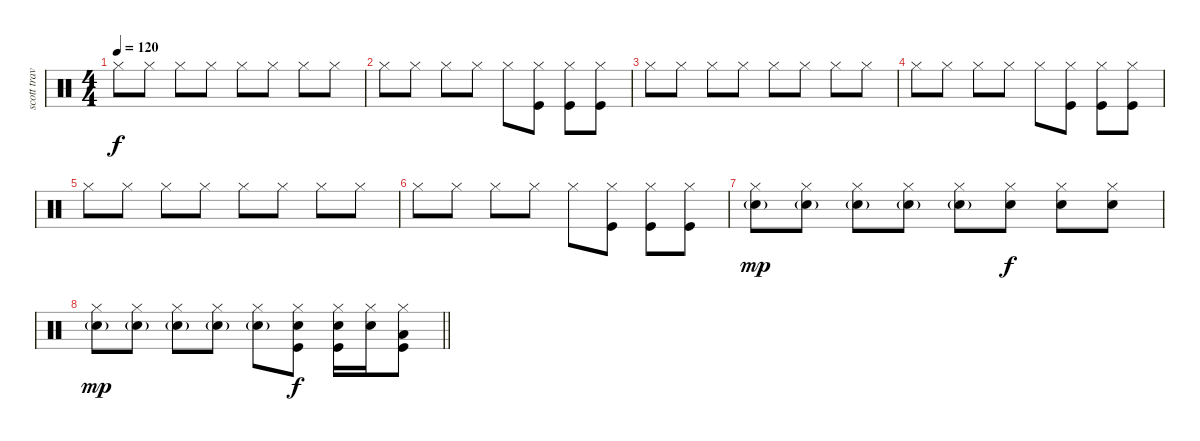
\track ("scott travis" "scott trav") {instrument percussion}
\staff {score}
\articulation defaults
\ts (4 4)
\tempo 120
\clef neutral
\ks c "Hi-Hat (closed)".8{dy f} "Hi-Hat (closed)".8 "Hi-Hat (closed)".8 "Hi-Hat (closed)".8 "Hi-Hat (closed)".8 "Hi-Hat (closed)".8 "Hi-Hat (closed)".8 "Hi-Hat (closed)".8
|
"Hi-Hat (closed)".8 "Hi-Hat (closed)".8 "Hi-Hat (closed)".8 "Hi-Hat (closed)".8 "Hi-Hat (closed)".8 ("Kick (hit)" "Hi-Hat (closed)").8 ("Kick (hit)" "Hi-Hat (closed)").8 ("Kick (hit)" "Hi-Hat (closed)").8 |
"Hi-Hat (closed)".8 "Hi-Hat (closed)".8 "Hi-Hat (closed)".8 "Hi-Hat (closed)".8 "Hi-Hat (closed)".8 "Hi-Hat (closed)".8 "Hi-Hat (closed)".8 "Hi-Hat (closed)".8 |
"Hi-Hat (closed)".8 "Hi-Hat (closed)".8 "Hi-Hat (closed)".8 "Hi-Hat (closed)".8 "Hi-Hat (closed)".8 ("Kick (hit)" "Hi-Hat (closed)").8 ("Kick (hit)" "Hi-Hat (closed)").8 ("Kick (hit)" "Hi-Hat (closed)").8 |
"Hi-Hat (closed)".8 "Hi-Hat (closed)".8 "Hi-Hat (closed)".8 "Hi-Hat (closed)".8 "Hi-Hat (closed)".8 "Hi-Hat (closed)".8 "Hi-Hat (closed)".8 "Hi-Hat (closed)".8 |
"Hi-Hat (closed)".8 "Hi-Hat (closed)".8 "Hi-Hat (closed)".8 "Hi-Hat (closed)".8 "Hi-Hat (closed)".8 ("Kick (hit)" "Hi-Hat (closed)").8 ("Kick (hit)" "Hi-Hat (closed)").8 ("Kick (hit)" "Hi-Hat (closed)").8 |
("Electric Snare (hit)"{g} "Hi-Hat (closed)").8{dy mp} ("Electric Snare (hit)"{g} "Hi-Hat (closed)").8 ("Electric Snare (hit)"{g} "Hi-Hat (closed)").8 ("Electric Snare (hit)"{g} "Hi-Hat (closed)").8 ("Electric Snare (hit)"{g} "Hi-Hat (closed)").8 ("Electric Snare (hit)" "Hi-Hat (closed)").8{dy f} ("Electric Snare (hit)" "Hi-Hat (closed)").8 ("Electric Snare (hit)" "Hi-Hat (closed)").8 |
\barLineRight lightlight
("Electric Snare (hit)"{g} "Hi-Hat (closed)").8{dy mp} ("Electric Snare (hit)"{g} "Hi-Hat (closed)").8 ("Electric Snare (hit)"{g} "Hi-Hat (closed)").8 ("Electric Snare (hit)"{g} "Hi-Hat (closed)").8 ("Electric Snare (hit)"{g} "Hi-Hat (closed)").8 ("Kick (hit)" "Electric Snare (hit)" "Hi-Hat (closed)").8{dy f} ("Kick (hit)" "Electric Snare (hit)" "Hi-Hat (closed)").16 ("Electric Snare (hit)" "Hi-Hat (closed)").16 ("Kick (hit)" "Low Tom (hit)" "Hi-Hat (closed)").8
